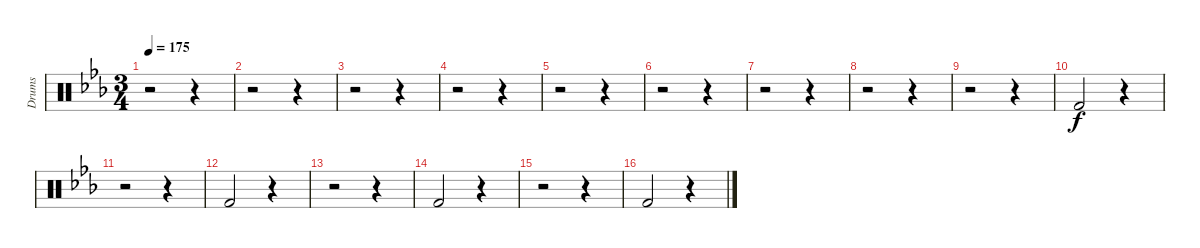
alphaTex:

\track ("Drums" "Drums") {instrument percussion}
\staff {score}
\articulation defaults
\ts (3 4)
\tempo 175
\clef neutral
\ks eb
r.2{dy f} r.4 |
r.2 r.4 |
r.2 r.4 |
r.2 r.4 |
r.2 r.4 |
r.2 r.4 |
r.2 r.4 |
r.2 r.4 |
r.2 r.4 |
"Kick (hit) 2".2 r.4 |
r.2 r.4 |
"Kick (hit) 2".2 r.4 |
r.2 r.4 |
"Kick (hit) 2".2 r.4 |
r.2 r.4 |
"Kick (hit) 2".2 r.4
